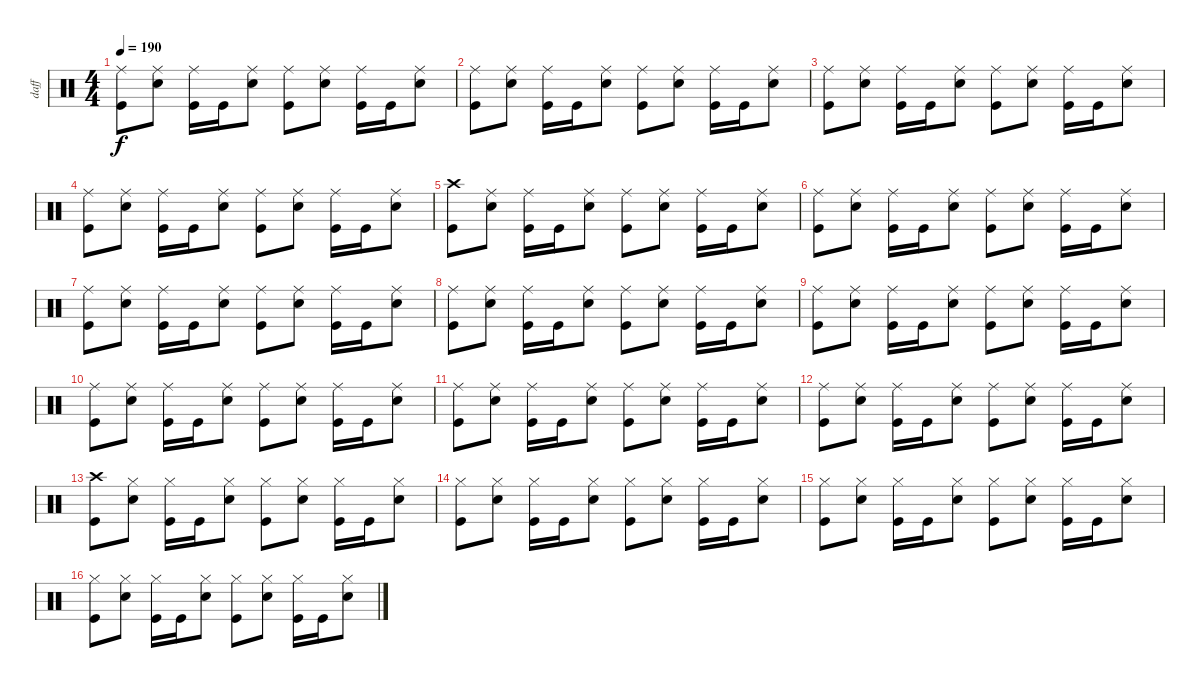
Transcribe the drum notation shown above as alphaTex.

\track ("daff" "daff") {instrument percussion}
\staff {score}
\articulation defaults
\ts (4 4)
\tempo 190
\clef neutral
\ks c
("Ride (middle)" "Kick (hit)").8{dy f} ("Ride (middle)" "Electric Snare (hit)").8 ("Ride (middle)" "Kick (hit)").16 "Kick (hit)".16 ("Ride (middle)" "Electric Snare (hit)").8 ("Ride (middle)" "Kick (hit)").8 ("Ride (middle)" "Electric Snare (hit)").8 ("Ride (middle)" "Kick (hit)").16 "Kick (hit)".16 ("Ride (middle)" "Electric Snare (hit)").8 |
("Ride (middle)" "Kick (hit)").8 ("Ride (middle)" "Electric Snare (hit)").8 ("Ride (middle)" "Kick (hit)").16 "Kick (hit)".16 ("Ride (middle)" "Electric Snare (hit)").8 ("Ride (middle)" "Kick (hit)").8 ("Ride (middle)" "Electric Snare (hit)").8 ("Ride (middle)" "Kick (hit)").16 "Kick (hit)".16 ("Ride (middle)" "Electric Snare (hit)").8 |
("Ride (middle)" "Kick (hit)").8 ("Ride (middle)" "Electric Snare (hit)").8 ("Ride (middle)" "Kick (hit)").16 "Kick (hit)".16 ("Ride (middle)" "Electric Snare (hit)").8 ("Ride (middle)" "Kick (hit)").8 ("Ride (middle)" "Electric Snare (hit)").8 ("Ride (middle)" "Kick (hit)").16 "Kick (hit)".16 ("Ride (middle)" "Electric Snare (hit)").8 |
("Ride (middle)" "Kick (hit)").8 ("Ride (middle)" "Electric Snare (hit)").8 ("Ride (middle)" "Kick (hit)").16 "Kick (hit)".16 ("Ride (middle)" "Electric Snare (hit)").8 ("Ride (middle)" "Kick (hit)").8 ("Ride (middle)" "Electric Snare (hit)").8 ("Ride (middle)" "Kick (hit)").16 "Kick (hit)".16 ("Ride (middle)" "Electric Snare (hit)").8 |
("Crash high (hit)" "Kick (hit)").8 ("Ride (middle)" "Electric Snare (hit)").8 ("Ride (middle)" "Kick (hit)").16 "Kick (hit)".16 ("Ride (middle)" "Electric Snare (hit)").8 ("Ride (middle)" "Kick (hit)").8 ("Ride (middle)" "Electric Snare (hit)").8 ("Ride (middle)" "Kick (hit)").16 "Kick (hit)".16 ("Ride (middle)" "Electric Snare (hit)").8 |
("Ride (middle)" "Kick (hit)").8 ("Ride (middle)" "Electric Snare (hit)").8 ("Ride (middle)" "Kick (hit)").16 "Kick (hit)".16 ("Ride (middle)" "Electric Snare (hit)").8 ("Ride (middle)" "Kick (hit)").8 ("Ride (middle)" "Electric Snare (hit)").8 ("Ride (middle)" "Kick (hit)").16 "Kick (hit)".16 ("Ride (middle)" "Electric Snare (hit)").8 |
("Ride (middle)" "Kick (hit)").8 ("Ride (middle)" "Electric Snare (hit)").8 ("Ride (middle)" "Kick (hit)").16 "Kick (hit)".16 ("Ride (middle)" "Electric Snare (hit)").8 ("Ride (middle)" "Kick (hit)").8 ("Ride (middle)" "Electric Snare (hit)").8 ("Ride (middle)" "Kick (hit)").16 "Kick (hit)".16 ("Ride (middle)" "Electric Snare (hit)").8 |
("Ride (middle)" "Kick (hit)").8 ("Ride (middle)" "Electric Snare (hit)").8 ("Ride (middle)" "Kick (hit)").16 "Kick (hit)".16 ("Ride (middle)" "Electric Snare (hit)").8 ("Ride (middle)" "Kick (hit)").8 ("Ride (middle)" "Electric Snare (hit)").8 ("Ride (middle)" "Kick (hit)").16 "Kick (hit)".16 ("Ride (middle)" "Electric Snare (hit)").8 |
("Ride (middle)" "Kick (hit)").8 ("Ride (middle)" "Electric Snare (hit)").8 ("Ride (middle)" "Kick (hit)").16 "Kick (hit)".16 ("Ride (middle)" "Electric Snare (hit)").8 ("Ride (middle)" "Kick (hit)").8 ("Ride (middle)" "Electric Snare (hit)").8 ("Ride (middle)" "Kick (hit)").16 "Kick (hit)".16 ("Ride (middle)" "Electric Snare (hit)").8 |
("Ride (middle)" "Kick (hit)").8 ("Ride (middle)" "Electric Snare (hit)").8 ("Ride (middle)" "Kick (hit)").16 "Kick (hit)".16 ("Ride (middle)" "Electric Snare (hit)").8 ("Ride (middle)" "Kick (hit)").8 ("Ride (middle)" "Electric Snare (hit)").8 ("Ride (middle)" "Kick (hit)").16 "Kick (hit)".16 ("Ride (middle)" "Electric Snare (hit)").8 |
("Ride (middle)" "Kick (hit)").8 ("Ride (middle)" "Electric Snare (hit)").8 ("Ride (middle)" "Kick (hit)").16 "Kick (hit)".16 ("Ride (middle)" "Electric Snare (hit)").8 ("Ride (middle)" "Kick (hit)").8 ("Ride (middle)" "Electric Snare (hit)").8 ("Ride (middle)" "Kick (hit)").16 "Kick (hit)".16 ("Ride (middle)" "Electric Snare (hit)").8 |
("Ride (middle)" "Kick (hit)").8 ("Ride (middle)" "Electric Snare (hit)").8 ("Ride (middle)" "Kick (hit)").16 "Kick (hit)".16 ("Ride (middle)" "Electric Snare (hit)").8 ("Ride (middle)" "Kick (hit)").8 ("Ride (middle)" "Electric Snare (hit)").8 ("Ride (middle)" "Kick (hit)").16 "Kick (hit)".16 ("Ride (middle)" "Electric Snare (hit)").8 |
("Crash high (hit)" "Kick (hit)").8 ("Hi-Hat (closed)" "Electric Snare (hit)").8 ("Hi-Hat (closed)" "Kick (hit)").16 "Kick (hit)".16 ("Hi-Hat (closed)" "Electric Snare (hit)").8 ("Hi-Hat (closed)" "Kick (hit)").8 ("Hi-Hat (closed)" "Electric Snare (hit)").8 ("Hi-Hat (closed)" "Kick (hit)").16 "Kick (hit)".16 ("Hi-Hat (closed)" "Electric Snare (hit)").8 |
("Hi-Hat (closed)" "Kick (hit)").8 ("Hi-Hat (closed)" "Electric Snare (hit)").8 ("Hi-Hat (closed)" "Kick (hit)").16 "Kick (hit)".16 ("Hi-Hat (closed)" "Electric Snare (hit)").8 ("Hi-Hat (closed)" "Kick (hit)").8 ("Hi-Hat (closed)" "Electric Snare (hit)").8 ("Hi-Hat (closed)" "Kick (hit)").16 "Kick (hit)".16 ("Hi-Hat (closed)" "Electric Snare (hit)").8 |
("Hi-Hat (closed)" "Kick (hit)").8 ("Hi-Hat (closed)" "Electric Snare (hit)").8 ("Hi-Hat (closed)" "Kick (hit)").16 "Kick (hit)".16 ("Hi-Hat (closed)" "Electric Snare (hit)").8 ("Hi-Hat (closed)" "Kick (hit)").8 ("Hi-Hat (closed)" "Electric Snare (hit)").8 ("Hi-Hat (closed)" "Kick (hit)").16 "Kick (hit)".16 ("Hi-Hat (closed)" "Electric Snare (hit)").8 |
("Hi-Hat (closed)" "Kick (hit)").8 ("Hi-Hat (closed)" "Electric Snare (hit)").8 ("Hi-Hat (closed)" "Kick (hit)").16 "Kick (hit)".16 ("Hi-Hat (closed)" "Electric Snare (hit)").8 ("Hi-Hat (closed)" "Kick (hit)").8 ("Hi-Hat (closed)" "Electric Snare (hit)").8 ("Hi-Hat (closed)" "Kick (hit)").16 "Kick (hit)".16 ("Hi-Hat (closed)" "Electric Snare (hit)").8
